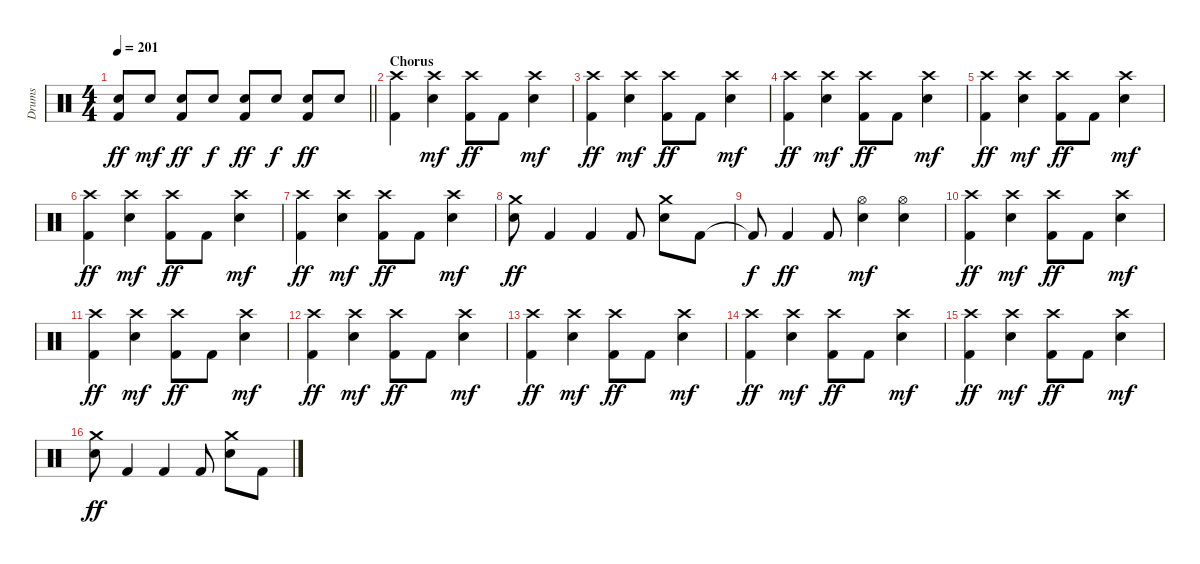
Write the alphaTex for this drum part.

\track ("Drums" "Drums") {instrument percussion}
\staff {score}
\articulation defaults
\ts (4 4)
\tempo 201
\clef neutral
\barLineRight lightlight
\ks c
("Snare (hit) 2" "Kick (hit) 2").8{dy ff} "Snare (hit) 2".8{dy mf} ("Snare (hit) 2" "Kick (hit) 2").8{dy ff} "Snare (hit) 2".8{dy f} ("Snare (hit) 2" "Kick (hit) 2").8{dy ff} "Snare (hit) 2".8{dy f} ("Snare (hit) 2" "Kick (hit) 2").8{dy ff} "Snare (hit) 2".8 |
\section ("" "Chorus")
("Crash high (hit)" "Kick (hit) 2").4 ("Crash high (hit)" "Snare (hit) 2").4{dy mf} ("Crash high (hit)" "Kick (hit) 2").8{dy ff} "Kick (hit) 2".8 ("Crash high (hit)" "Snare (hit) 2").4{dy mf} |
("Crash high (hit)" "Kick (hit) 2").4{dy ff} ("Crash high (hit)" "Snare (hit) 2").4{dy mf} ("Crash high (hit)" "Kick (hit) 2").8{dy ff} "Kick (hit) 2".8 ("Crash high (hit)" "Snare (hit) 2").4{dy mf} |
("Crash high (hit)" "Kick (hit) 2").4{dy ff} ("Crash high (hit)" "Snare (hit) 2").4{dy mf} ("Crash high (hit)" "Kick (hit) 2").8{dy ff} "Kick (hit) 2".8 ("Crash high (hit)" "Snare (hit) 2").4{dy mf} |
("Crash high (hit)" "Kick (hit) 2").4{dy ff} ("Crash high (hit)" "Snare (hit) 2").4{dy mf} ("Crash high (hit)" "Kick (hit) 2").8{dy ff} "Kick (hit) 2".8 ("Crash high (hit)" "Snare (hit) 2").4{dy mf} |
("Crash high (hit)" "Kick (hit) 2").4{dy ff} ("Crash high (hit)" "Snare (hit) 2").4{dy mf} ("Crash high (hit)" "Kick (hit) 2").8{dy ff} "Kick (hit) 2".8 ("Crash high (hit)" "Snare (hit) 2").4{dy mf} |
("Crash high (hit)" "Kick (hit) 2").4{dy ff} ("Crash high (hit)" "Snare (hit) 2").4{dy mf} ("Crash high (hit)" "Kick (hit) 2").8{dy ff} "Kick (hit) 2".8 ("Crash high (hit)" "Snare (hit) 2").4{dy mf} |
("Crash medium (hit)" "Snare (hit) 2").8{dy ff} "Kick (hit) 2".4 "Kick (hit) 2".4 "Kick (hit) 2".8 ("Crash medium (hit)" "Snare (hit) 2").8 "Kick (hit) 2".8 |
"Kick (hit) 2"{t}.8{dy f} "Kick (hit) 2".4{dy ff} "Kick (hit) 2".8 ("Hi-Hat (open)" "Snare (hit) 2").4{dy mf} ("Hi-Hat (open)" "Snare (hit) 2").4 |
("Crash high (hit)" "Kick (hit) 2").4{dy ff} ("Crash high (hit)" "Snare (hit) 2").4{dy mf} ("Crash high (hit)" "Kick (hit) 2").8{dy ff} "Kick (hit) 2".8 ("Crash high (hit)" "Snare (hit) 2").4{dy mf} |
("Crash high (hit)" "Kick (hit) 2").4{dy ff} ("Crash high (hit)" "Snare (hit) 2").4{dy mf} ("Crash high (hit)" "Kick (hit) 2").8{dy ff} "Kick (hit) 2".8 ("Crash high (hit)" "Snare (hit) 2").4{dy mf} |
("Crash high (hit)" "Kick (hit) 2").4{dy ff} ("Crash high (hit)" "Snare (hit) 2").4{dy mf} ("Crash high (hit)" "Kick (hit) 2").8{dy ff} "Kick (hit) 2".8 ("Crash high (hit)" "Snare (hit) 2").4{dy mf} |
("Crash high (hit)" "Kick (hit) 2").4{dy ff} ("Crash high (hit)" "Snare (hit) 2").4{dy mf} ("Crash high (hit)" "Kick (hit) 2").8{dy ff} "Kick (hit) 2".8 ("Crash high (hit)" "Snare (hit) 2").4{dy mf} |
("Crash high (hit)" "Kick (hit) 2").4{dy ff} ("Crash high (hit)" "Snare (hit) 2").4{dy mf} ("Crash high (hit)" "Kick (hit) 2").8{dy ff} "Kick (hit) 2".8 ("Crash high (hit)" "Snare (hit) 2").4{dy mf} |
("Crash high (hit)" "Kick (hit) 2").4{dy ff} ("Crash high (hit)" "Snare (hit) 2").4{dy mf} ("Crash high (hit)" "Kick (hit) 2").8{dy ff} "Kick (hit) 2".8 ("Crash high (hit)" "Snare (hit) 2").4{dy mf} |
("Crash medium (hit)" "Snare (hit) 2").8{dy ff} "Kick (hit) 2".4 "Kick (hit) 2".4 "Kick (hit) 2".8 ("Crash medium (hit)" "Snare (hit) 2").8 "Kick (hit) 2".8
